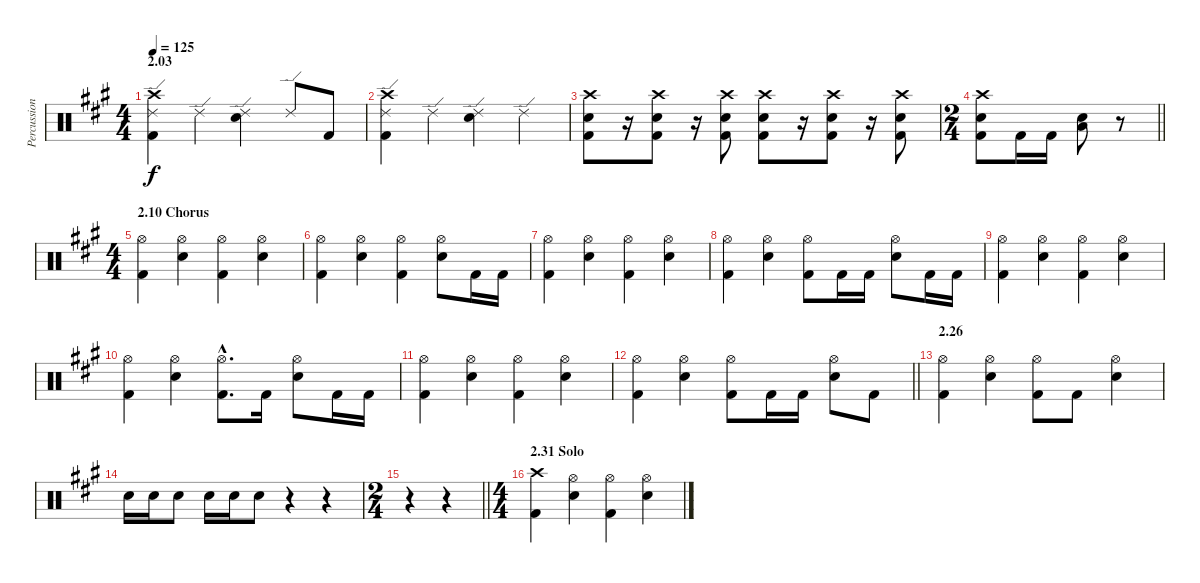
\track ("Percussion" "Percussion") {instrument percussion}
\staff {score}
\articulation defaults
\ts (4 4)
\section ("" "2.03")
\tempo 125
\clef neutral
\ks f#minor
("Crash high (hit)" "Ride (edge) 2" "Kick (hit) 2").4{dy f} "Ride (edge) 2".4 ("Ride (edge) 2" "Electric Snare (hit)").4 "Ride (edge) 2".8 "Kick (hit) 2".8 |
("Crash high (hit)" "Ride (edge) 2" "Kick (hit) 2").4 "Ride (edge) 2".4 ("Ride (edge) 2" "Electric Snare (hit)").4 "Ride (edge) 2".4 |
("Crash high (hit)" "Electric Snare (hit)" "Kick (hit) 2").8 r.16 ("Crash high (hit)" "Electric Snare (hit)" "Kick (hit) 2").8 r.16 ("Crash high (hit)" "Electric Snare (hit)" "Kick (hit) 2").8 ("Crash high (hit)" "Electric Snare (hit)" "Kick (hit) 2").8 r.16 ("Crash high (hit)" "Electric Snare (hit)" "Kick (hit) 2").8 r.16 ("Crash high (hit)" "Electric Snare (hit)" "Kick (hit) 2").8 |
\ts (2 4)
\barLineRight lightlight
("Crash high (hit)" "Electric Snare (hit)" "Kick (hit) 2").8 "Kick (hit) 2".16 "Kick (hit) 2".16 ("Electric Snare (hit)" "Low Floor Tom (hit)").8 r.8 |
\ts (4 4)
\section ("" "2.10 Chorus")
("Hi-Hat (open)" "Kick (hit) 2").4 ("Hi-Hat (open)" "Electric Snare (hit)").4 ("Hi-Hat (open)" "Kick (hit) 2").4 ("Hi-Hat (open)" "Electric Snare (hit)").4 |
("Hi-Hat (open)" "Kick (hit) 2").4 ("Hi-Hat (open)" "Electric Snare (hit)").4 ("Hi-Hat (open)" "Kick (hit) 2").4 ("Hi-Hat (open)" "Electric Snare (hit)").8 "Kick (hit) 2".16 "Kick (hit) 2".16 |
("Hi-Hat (open)" "Kick (hit) 2").4 ("Hi-Hat (open)" "Electric Snare (hit)").4 ("Hi-Hat (open)" "Kick (hit) 2").4 ("Hi-Hat (open)" "Electric Snare (hit)").4 |
("Hi-Hat (open)" "Kick (hit) 2").4 ("Hi-Hat (open)" "Electric Snare (hit)").4 ("Hi-Hat (open)" "Kick (hit) 2").8 "Kick (hit) 2".16 "Kick (hit) 2".16 ("Hi-Hat (open)" "Electric Snare (hit)").8 "Kick (hit) 2".16 "Kick (hit) 2".16 |
("Hi-Hat (open)" "Kick (hit) 2").4 ("Hi-Hat (open)" "Electric Snare (hit)").4 ("Hi-Hat (open)" "Kick (hit) 2").4 ("Hi-Hat (open)" "Electric Snare (hit)").4 |
("Hi-Hat (open)" "Kick (hit) 2").4 ("Hi-Hat (open)" "Electric Snare (hit)").4 ("Hi-Hat (open)"{hac} "Kick (hit) 2"{hac}).8{d} "Kick (hit) 2".16 ("Hi-Hat (open)" "Electric Snare (hit)").8 "Kick (hit) 2".16 "Kick (hit) 2".16 |
("Hi-Hat (open)" "Kick (hit) 2").4 ("Hi-Hat (open)" "Electric Snare (hit)").4 ("Hi-Hat (open)" "Kick (hit) 2").4 ("Hi-Hat (open)" "Electric Snare (hit)").4 |
\barLineRight lightlight
("Hi-Hat (open)" "Kick (hit) 2").4 ("Hi-Hat (open)" "Electric Snare (hit)").4 ("Hi-Hat (open)" "Kick (hit) 2").8 "Kick (hit) 2".16 "Kick (hit) 2".16 ("Hi-Hat (open)" "Electric Snare (hit)").8 "Kick (hit) 2".8 |
\section ("" "2.26")
("Hi-Hat (open)" "Kick (hit) 2").4 ("Hi-Hat (open)" "Electric Snare (hit)").4 ("Hi-Hat (open)" "Kick (hit) 2").8 "Kick (hit) 2".8 ("Hi-Hat (open)" "Electric Snare (hit)").4 |
"Electric Snare (hit)".16 "Electric Snare (hit)".16 "Electric Snare (hit)".8 "Electric Snare (hit)".16 "Electric Snare (hit)".16 "Electric Snare (hit)".8 r.4 r.4 |
\ts (2 4)
\barLineRight lightlight
r.4 r.4 |
\ts (4 4)
\section ("" "2.31 Solo")
("Crash high (hit)" "Kick (hit) 2").4 ("Hi-Hat (open)" "Electric Snare (hit)").4 ("Hi-Hat (open)" "Kick (hit) 2").4 ("Hi-Hat (open)" "Electric Snare (hit)").4
